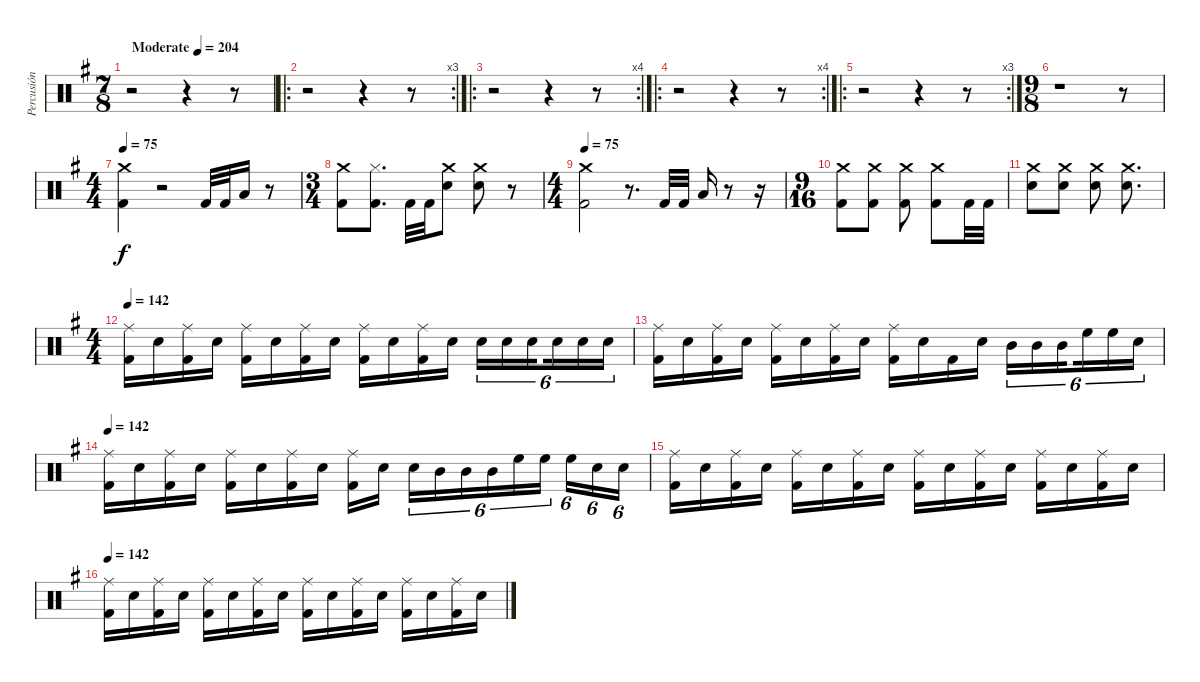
\track ("Percusión" "Percusión") {instrument percussion}
\staff {score}
\articulation defaults
\ts (7 8)
\tempo (204 "Moderate")
\clef neutral
\ks g
r.2{dy f} r.4 r.8 |
\ro
\rc 3
r.2 r.4 r.8 |
\ro
\rc 4
r.2 r.4 r.8 |
\ro
\rc 4
r.2 r.4 r.8 |
\ro
\rc 3
r.2 r.4 r.8 |
\ts (9 8)
r.1 r.8 |
\ts (4 4)
\tempo 75
("Crash medium (hit)" "Kick (hit) 2").4 r.2 "Kick (hit) 2".32 "Kick (hit) 2".32 "Low Floor Tom (hit)".16 r.8 |
\ts (3 4)
("Crash medium (hit)" "Kick (hit) 2").8 ("Hi-Hat (closed)" "Kick (hit) 2").8{d} "Kick (hit) 2".32 "Kick (hit) 2".32 ("Crash medium (hit)" "Electric Snare (hit)").8 ("Crash medium (hit)" "Electric Snare (hit)").8 r.8 |
\ts (4 4)
\tempo 75
("Crash medium (hit)" "Kick (hit) 2").2 r.8{d} "Kick (hit) 2".32 "Kick (hit) 2".32 "Low Floor Tom (hit)".16 r.8 r.16 |
\ts (9 16)
("Crash medium (hit)" "Kick (hit) 2").8 ("Crash medium (hit)" "Kick (hit) 2").8 ("Crash medium (hit)" "Kick (hit) 2").8 ("Crash medium (hit)" "Kick (hit) 2").8 "Kick (hit) 2".32 "Kick (hit) 2".32 |
("Crash medium (hit)" "Electric Snare (hit)").8 ("Crash medium (hit)" "Electric Snare (hit)").8 ("Crash medium (hit)" "Electric Snare (hit)").8 ("Crash medium (hit)" "Electric Snare (hit)").8{d} |
\ts (4 4)
\tempo 142
("Ride (middle)" "Kick (hit) 2").16 "Electric Snare (hit)".16 ("Ride (middle)" "Kick (hit) 2").16 "Electric Snare (hit)".16 ("Ride (middle)" "Kick (hit) 2").16 "Electric Snare (hit)".16 ("Ride (middle)" "Kick (hit) 2").16 "Electric Snare (hit)".16 ("Ride (middle)" "Kick (hit) 2").16 "Electric Snare (hit)".16 ("Ride (middle)" "Kick (hit) 2").16 "Electric Snare (hit)".16 "Electric Snare (hit)".16{tu (6 4)} "Electric Snare (hit)".16{tu (6 4)} "Electric Snare (hit)".16{tu (6 4) beam splitsecondary} "Electric Snare (hit)".16{tu (6 4)} "Electric Snare (hit)".16{tu (6 4)} "Electric Snare (hit)".16{tu (6 4)} |
("Ride (middle)" "Kick (hit) 2").16 "Electric Snare (hit)".16 ("Ride (middle)" "Kick (hit) 2").16 "Electric Snare (hit)".16 ("Ride (middle)" "Kick (hit) 2").16 "Electric Snare (hit)".16 ("Ride (middle)" "Kick (hit) 2").16 "Electric Snare (hit)".16 ("Ride (middle)" "Kick (hit) 2").16 "Electric Snare (hit)".16 "Kick (hit) 2".16 "Electric Snare (hit)".16 "Mid Tom (hit)".16{tu (6 4)} "Mid Tom (hit)".16{tu (6 4)} "Mid Tom (hit)".16{tu (6 4) beam splitsecondary} "High Floor Tom (hit)".16{tu (6 4)} "High Floor Tom (hit)".16{tu (6 4)} "Electric Snare (hit)".16{tu (6 4)} |
\tempo 142
("Ride (middle)" "Kick (hit) 2").16 "Electric Snare (hit)".16 ("Ride (middle)" "Kick (hit) 2").16 "Electric Snare (hit)".16 ("Ride (middle)" "Kick (hit) 2").16 "Electric Snare (hit)".16 ("Ride (middle)" "Kick (hit) 2").16 "Electric Snare (hit)".16 ("Ride (middle)" "Kick (hit) 2").16 "Electric Snare (hit)".16{beam splitsecondary} "Electric Snare (hit)".16{tu (6 4)} "Mid Tom (hit)".16{tu (6 4)} "Mid Tom (hit)".16{tu (6 4)} "Mid Tom (hit)".16{tu (6 4)} "High Floor Tom (hit)".16{tu (6 4)} "High Floor Tom (hit)".16{tu (6 4) beam splitsecondary} "High Floor Tom (hit)".16{tu (6 4)} "Electric Snare (hit)".16{tu (6 4)} "Electric Snare (hit)".16{tu (6 4)} |
("Ride (middle)" "Kick (hit) 2").16 "Electric Snare (hit)".16 ("Ride (middle)" "Kick (hit) 2").16 "Electric Snare (hit)".16 ("Ride (middle)" "Kick (hit) 2").16 "Electric Snare (hit)".16 ("Ride (middle)" "Kick (hit) 2").16 "Electric Snare (hit)".16 ("Ride (middle)" "Kick (hit) 2").16 "Electric Snare (hit)".16 ("Ride (middle)" "Kick (hit) 2").16 "Electric Snare (hit)".16 ("Ride (middle)" "Kick (hit) 2").16 "Electric Snare (hit)".16 ("Ride (middle)" "Kick (hit) 2").16 "Electric Snare (hit)".16 |
\tempo 142
("Ride (middle)" "Kick (hit) 2").16 "Electric Snare (hit)".16 ("Ride (middle)" "Kick (hit) 2").16 "Electric Snare (hit)".16 ("Ride (middle)" "Kick (hit) 2").16 "Electric Snare (hit)".16 ("Ride (middle)" "Kick (hit) 2").16 "Electric Snare (hit)".16 ("Ride (middle)" "Kick (hit) 2").16 "Electric Snare (hit)".16 ("Ride (middle)" "Kick (hit) 2").16 "Electric Snare (hit)".16 ("Ride (middle)" "Kick (hit) 2").16 "Electric Snare (hit)".16 ("Ride (middle)" "Kick (hit) 2").16 "Electric Snare (hit)".16
